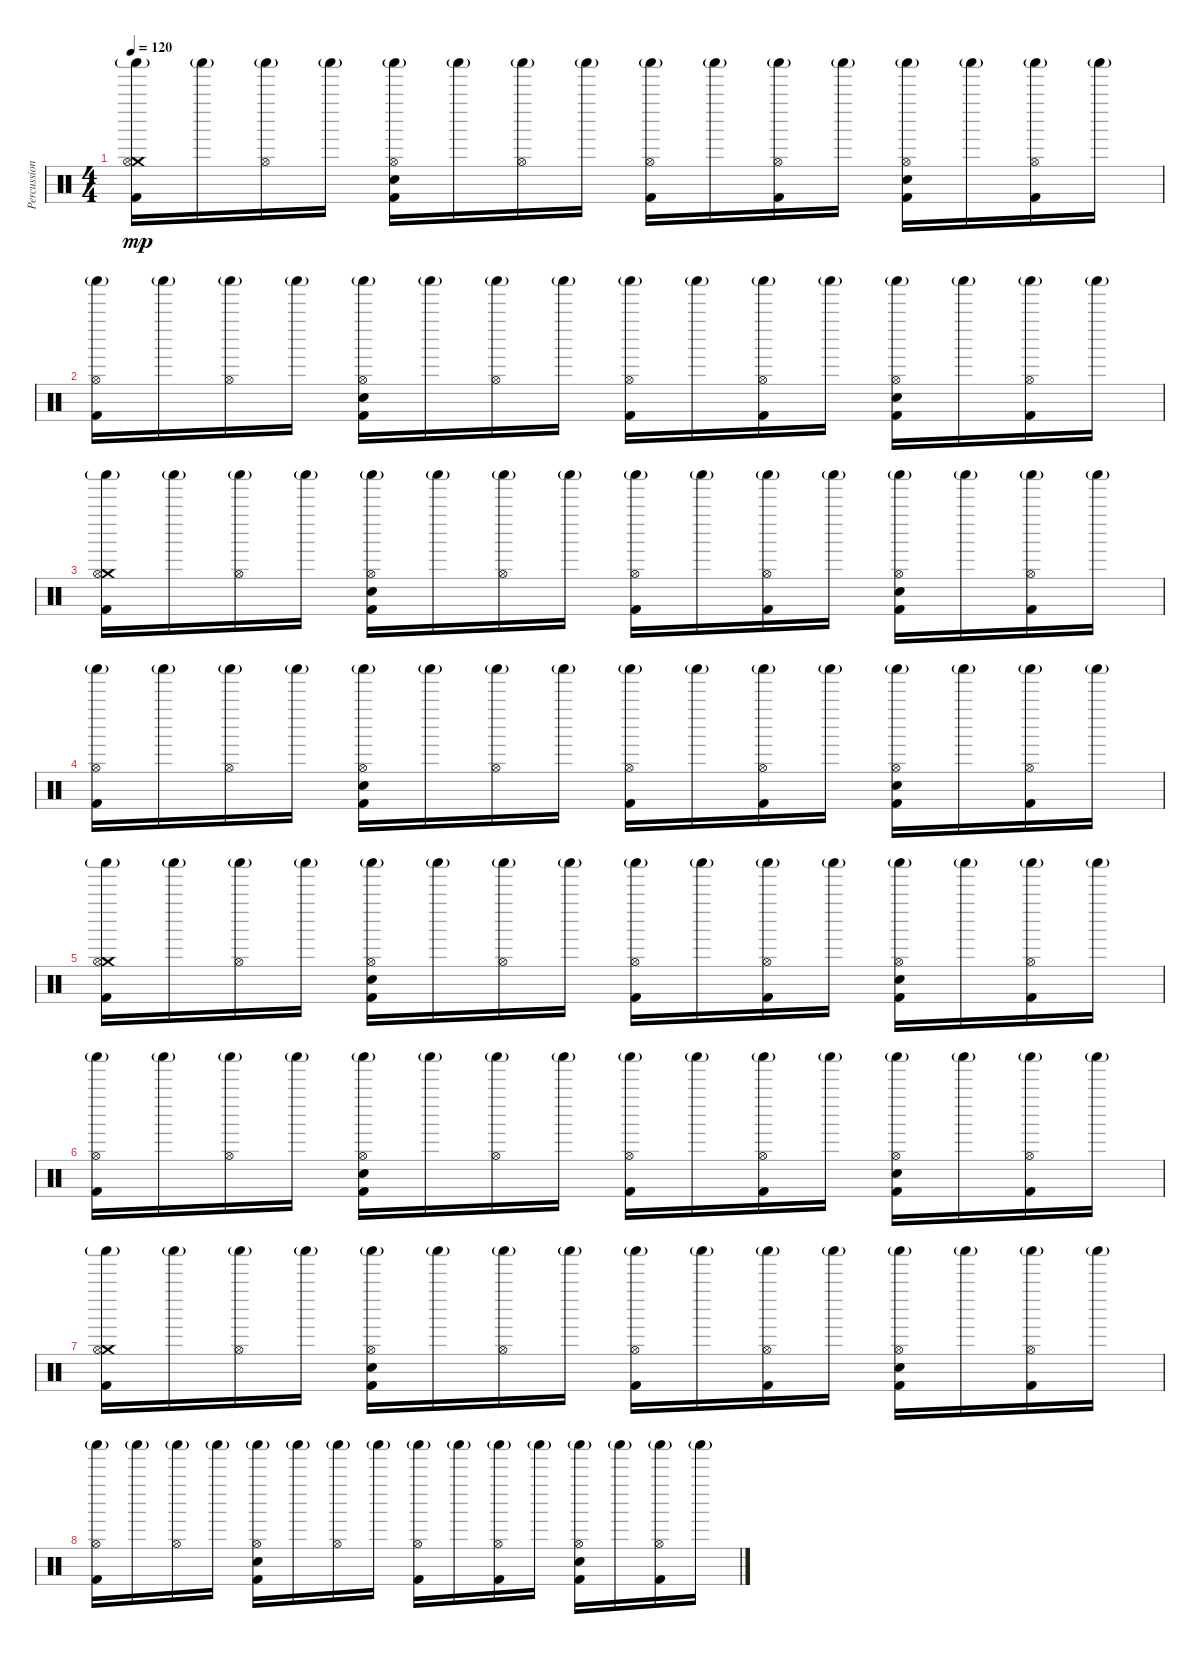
\track ("Percussions" "Percussion") {instrument percussion}
\staff {score}
\articulation defaults
\ts (4 4)
\tempo 120
\clef neutral
\ks c
("Crash medium (hit)" "Hi-Hat (open)" "Shaker (hit)"{g} "Kick (hit) 2").16{dy mp} "Shaker (hit)"{g}.16 ("Hi-Hat (open)" "Shaker (hit)"{g}).16 "Shaker (hit)"{g}.16 ("Hi-Hat (open)" "Electric Snare (hit)" "Shaker (hit)"{g} "Kick (hit) 2").16 "Shaker (hit)"{g}.16 ("Hi-Hat (open)" "Shaker (hit)"{g}).16 "Shaker (hit)"{g}.16 ("Hi-Hat (open)" "Shaker (hit)"{g} "Kick (hit) 2").16 "Shaker (hit)"{g}.16 ("Hi-Hat (open)" "Shaker (hit)"{g} "Kick (hit) 2").16 "Shaker (hit)"{g}.16 ("Hi-Hat (open)" "Electric Snare (hit)" "Shaker (hit)"{g} "Kick (hit) 2").16 "Shaker (hit)"{g}.16 ("Hi-Hat (open)" "Shaker (hit)"{g} "Kick (hit) 2").16 "Shaker (hit)"{g}.16 |
("Hi-Hat (open)" "Shaker (hit)"{g} "Kick (hit) 2").16 "Shaker (hit)"{g}.16 ("Hi-Hat (open)" "Shaker (hit)"{g}).16 "Shaker (hit)"{g}.16 ("Hi-Hat (open)" "Electric Snare (hit)" "Shaker (hit)"{g} "Kick (hit) 2").16 "Shaker (hit)"{g}.16 ("Hi-Hat (open)" "Shaker (hit)"{g}).16 "Shaker (hit)"{g}.16 ("Hi-Hat (open)" "Shaker (hit)"{g} "Kick (hit) 2").16 "Shaker (hit)"{g}.16 ("Hi-Hat (open)" "Shaker (hit)"{g} "Kick (hit) 2").16 "Shaker (hit)"{g}.16 ("Hi-Hat (open)" "Electric Snare (hit)" "Shaker (hit)"{g} "Kick (hit) 2").16 "Shaker (hit)"{g}.16 ("Hi-Hat (open)" "Shaker (hit)"{g} "Kick (hit) 2").16 "Shaker (hit)"{g}.16 |
("Crash medium (hit)" "Hi-Hat (open)" "Shaker (hit)"{g} "Kick (hit) 2").16 "Shaker (hit)"{g}.16 ("Hi-Hat (open)" "Shaker (hit)"{g}).16 "Shaker (hit)"{g}.16 ("Hi-Hat (open)" "Electric Snare (hit)" "Shaker (hit)"{g} "Kick (hit) 2").16 "Shaker (hit)"{g}.16 ("Hi-Hat (open)" "Shaker (hit)"{g}).16 "Shaker (hit)"{g}.16 ("Hi-Hat (open)" "Shaker (hit)"{g} "Kick (hit) 2").16 "Shaker (hit)"{g}.16 ("Hi-Hat (open)" "Shaker (hit)"{g} "Kick (hit) 2").16 "Shaker (hit)"{g}.16 ("Hi-Hat (open)" "Electric Snare (hit)" "Shaker (hit)"{g} "Kick (hit) 2").16 "Shaker (hit)"{g}.16 ("Hi-Hat (open)" "Shaker (hit)"{g} "Kick (hit) 2").16 "Shaker (hit)"{g}.16 |
("Hi-Hat (open)" "Shaker (hit)"{g} "Kick (hit) 2").16 "Shaker (hit)"{g}.16 ("Hi-Hat (open)" "Shaker (hit)"{g}).16 "Shaker (hit)"{g}.16 ("Hi-Hat (open)" "Electric Snare (hit)" "Shaker (hit)"{g} "Kick (hit) 2").16 "Shaker (hit)"{g}.16 ("Hi-Hat (open)" "Shaker (hit)"{g}).16 "Shaker (hit)"{g}.16 ("Hi-Hat (open)" "Shaker (hit)"{g} "Kick (hit) 2").16 "Shaker (hit)"{g}.16 ("Hi-Hat (open)" "Shaker (hit)"{g} "Kick (hit) 2").16 "Shaker (hit)"{g}.16 ("Hi-Hat (open)" "Electric Snare (hit)" "Shaker (hit)"{g} "Kick (hit) 2").16 "Shaker (hit)"{g}.16 ("Hi-Hat (open)" "Shaker (hit)"{g} "Kick (hit) 2").16 "Shaker (hit)"{g}.16 |
("Crash medium (hit)" "Hi-Hat (open)" "Shaker (hit)"{g} "Kick (hit) 2").16 "Shaker (hit)"{g}.16 ("Hi-Hat (open)" "Shaker (hit)"{g}).16 "Shaker (hit)"{g}.16 ("Hi-Hat (open)" "Electric Snare (hit)" "Shaker (hit)"{g} "Kick (hit) 2").16 "Shaker (hit)"{g}.16 ("Hi-Hat (open)" "Shaker (hit)"{g}).16 "Shaker (hit)"{g}.16 ("Hi-Hat (open)" "Shaker (hit)"{g} "Kick (hit) 2").16 "Shaker (hit)"{g}.16 ("Hi-Hat (open)" "Shaker (hit)"{g} "Kick (hit) 2").16 "Shaker (hit)"{g}.16 ("Hi-Hat (open)" "Electric Snare (hit)" "Shaker (hit)"{g} "Kick (hit) 2").16 "Shaker (hit)"{g}.16 ("Hi-Hat (open)" "Shaker (hit)"{g} "Kick (hit) 2").16 "Shaker (hit)"{g}.16 |
("Hi-Hat (open)" "Shaker (hit)"{g} "Kick (hit) 2").16 "Shaker (hit)"{g}.16 ("Hi-Hat (open)" "Shaker (hit)"{g}).16 "Shaker (hit)"{g}.16 ("Hi-Hat (open)" "Electric Snare (hit)" "Shaker (hit)"{g} "Kick (hit) 2").16 "Shaker (hit)"{g}.16 ("Hi-Hat (open)" "Shaker (hit)"{g}).16 "Shaker (hit)"{g}.16 ("Hi-Hat (open)" "Shaker (hit)"{g} "Kick (hit) 2").16 "Shaker (hit)"{g}.16 ("Hi-Hat (open)" "Shaker (hit)"{g} "Kick (hit) 2").16 "Shaker (hit)"{g}.16 ("Hi-Hat (open)" "Electric Snare (hit)" "Shaker (hit)"{g} "Kick (hit) 2").16 "Shaker (hit)"{g}.16 ("Hi-Hat (open)" "Shaker (hit)"{g} "Kick (hit) 2").16 "Shaker (hit)"{g}.16 |
("Crash medium (hit)" "Hi-Hat (open)" "Shaker (hit)"{g} "Kick (hit) 2").16 "Shaker (hit)"{g}.16 ("Hi-Hat (open)" "Shaker (hit)"{g}).16 "Shaker (hit)"{g}.16 ("Hi-Hat (open)" "Electric Snare (hit)" "Shaker (hit)"{g} "Kick (hit) 2").16 "Shaker (hit)"{g}.16 ("Hi-Hat (open)" "Shaker (hit)"{g}).16 "Shaker (hit)"{g}.16 ("Hi-Hat (open)" "Shaker (hit)"{g} "Kick (hit) 2").16 "Shaker (hit)"{g}.16 ("Hi-Hat (open)" "Shaker (hit)"{g} "Kick (hit) 2").16 "Shaker (hit)"{g}.16 ("Hi-Hat (open)" "Electric Snare (hit)" "Shaker (hit)"{g} "Kick (hit) 2").16 "Shaker (hit)"{g}.16 ("Hi-Hat (open)" "Shaker (hit)"{g} "Kick (hit) 2").16 "Shaker (hit)"{g}.16 |
("Hi-Hat (open)" "Shaker (hit)"{g} "Kick (hit) 2").16 "Shaker (hit)"{g}.16 ("Hi-Hat (open)" "Shaker (hit)"{g}).16 "Shaker (hit)"{g}.16 ("Hi-Hat (open)" "Electric Snare (hit)" "Shaker (hit)"{g} "Kick (hit) 2").16 "Shaker (hit)"{g}.16 ("Hi-Hat (open)" "Shaker (hit)"{g}).16 "Shaker (hit)"{g}.16 ("Hi-Hat (open)" "Shaker (hit)"{g} "Kick (hit) 2").16 "Shaker (hit)"{g}.16 ("Hi-Hat (open)" "Shaker (hit)"{g} "Kick (hit) 2").16 "Shaker (hit)"{g}.16 ("Hi-Hat (open)" "Electric Snare (hit)" "Shaker (hit)"{g} "Kick (hit) 2").16 "Shaker (hit)"{g}.16 ("Hi-Hat (open)" "Shaker (hit)"{g} "Kick (hit) 2").16 "Shaker (hit)"{g}.16
